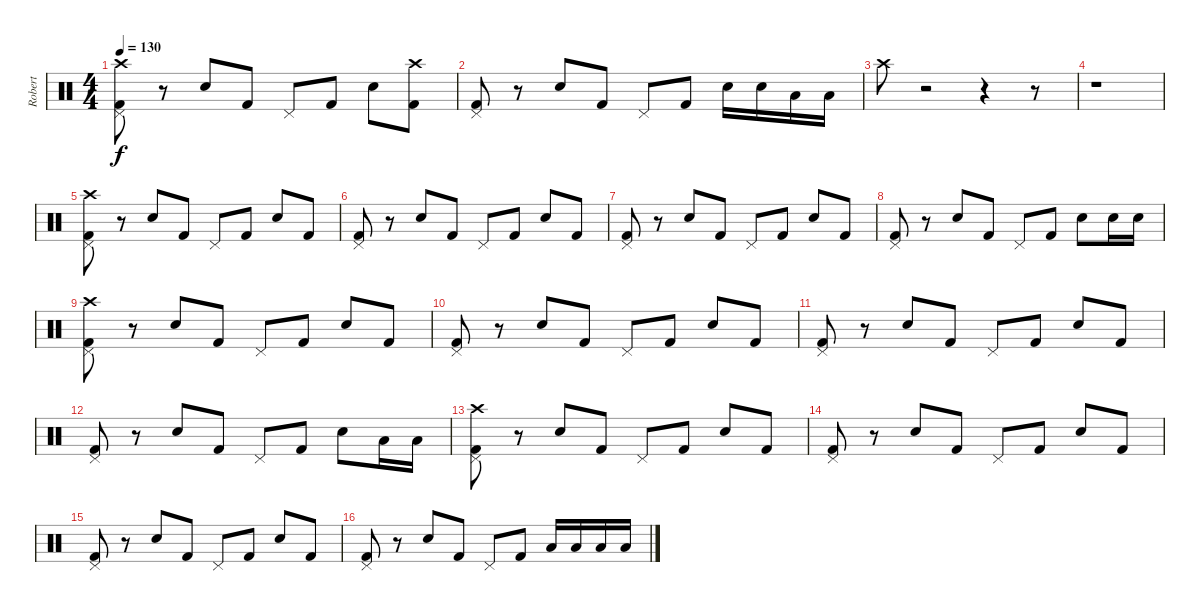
\track ("Robert" "Robert") {instrument percussion}
\staff {score}
\articulation defaults
\ts (4 4)
\tempo 130
\clef neutral
\ks c
("Crash high (hit)" "Pedal Hi-Hat (hit)" "Kick (hit) 2").8{dy f} r.8 "Electric Snare (hit)".8 "Kick (hit) 2".8 "Pedal Hi-Hat (hit)".8 "Kick (hit) 2".8 "Electric Snare (hit)".8 ("Crash high (hit)" "Kick (hit) 2").8 |
("Pedal Hi-Hat (hit)" "Kick (hit) 2").8 r.8 "Electric Snare (hit)".8 "Kick (hit) 2".8 "Pedal Hi-Hat (hit)".8 "Kick (hit) 2".8 "Electric Snare (hit)".16 "Electric Snare (hit)".16 "Low Tom (hit)".16 "Low Tom (hit)".16 |
"Crash high (hit)".8 r.2 r.4 r.8 |
r.1 |
("Crash high (hit)" "Pedal Hi-Hat (hit)" "Kick (hit) 2").8 r.8 "Electric Snare (hit)".8 "Kick (hit) 2".8 "Pedal Hi-Hat (hit)".8 "Kick (hit) 2".8 "Electric Snare (hit)".8 "Kick (hit) 2".8 |
("Pedal Hi-Hat (hit)" "Kick (hit) 2").8 r.8 "Electric Snare (hit)".8 "Kick (hit) 2".8 "Pedal Hi-Hat (hit)".8 "Kick (hit) 2".8 "Electric Snare (hit)".8 "Kick (hit) 2".8 |
("Pedal Hi-Hat (hit)" "Kick (hit) 2").8 r.8 "Electric Snare (hit)".8 "Kick (hit) 2".8 "Pedal Hi-Hat (hit)".8 "Kick (hit) 2".8 "Electric Snare (hit)".8 "Kick (hit) 2".8 |
("Pedal Hi-Hat (hit)" "Kick (hit) 2").8 r.8 "Electric Snare (hit)".8 "Kick (hit) 2".8 "Pedal Hi-Hat (hit)".8 "Kick (hit) 2".8 "Electric Snare (hit)".8 "Electric Snare (hit)".16 "Electric Snare (hit)".16 |
("Crash high (hit)" "Pedal Hi-Hat (hit)" "Kick (hit) 2").8 r.8 "Electric Snare (hit)".8 "Kick (hit) 2".8 "Pedal Hi-Hat (hit)".8 "Kick (hit) 2".8 "Electric Snare (hit)".8 "Kick (hit) 2".8 |
("Pedal Hi-Hat (hit)" "Kick (hit) 2").8 r.8 "Electric Snare (hit)".8 "Kick (hit) 2".8 "Pedal Hi-Hat (hit)".8 "Kick (hit) 2".8 "Electric Snare (hit)".8 "Kick (hit) 2".8 |
("Pedal Hi-Hat (hit)" "Kick (hit) 2").8 r.8 "Electric Snare (hit)".8 "Kick (hit) 2".8 "Pedal Hi-Hat (hit)".8 "Kick (hit) 2".8 "Electric Snare (hit)".8 "Kick (hit) 2".8 |
("Pedal Hi-Hat (hit)" "Kick (hit) 2").8 r.8 "Electric Snare (hit)".8 "Kick (hit) 2".8 "Pedal Hi-Hat (hit)".8 "Kick (hit) 2".8 "Electric Snare (hit)".8 "Low Tom (hit)".16 "Low Tom (hit)".16 |
("Crash high (hit)" "Pedal Hi-Hat (hit)" "Kick (hit) 2").8 r.8 "Electric Snare (hit)".8 "Kick (hit) 2".8 "Pedal Hi-Hat (hit)".8 "Kick (hit) 2".8 "Electric Snare (hit)".8 "Kick (hit) 2".8 |
("Pedal Hi-Hat (hit)" "Kick (hit) 2").8 r.8 "Electric Snare (hit)".8 "Kick (hit) 2".8 "Pedal Hi-Hat (hit)".8 "Kick (hit) 2".8 "Electric Snare (hit)".8 "Kick (hit) 2".8 |
("Pedal Hi-Hat (hit)" "Kick (hit) 2").8 r.8 "Electric Snare (hit)".8 "Kick (hit) 2".8 "Pedal Hi-Hat (hit)".8 "Kick (hit) 2".8 "Electric Snare (hit)".8 "Kick (hit) 2".8 |
("Pedal Hi-Hat (hit)" "Kick (hit) 2").8 r.8 "Electric Snare (hit)".8 "Kick (hit) 2".8 "Pedal Hi-Hat (hit)".8 "Kick (hit) 2".8 "Low Tom (hit)".16 "Low Tom (hit)".16 "Low Tom (hit)".16 "Low Tom (hit)".16
